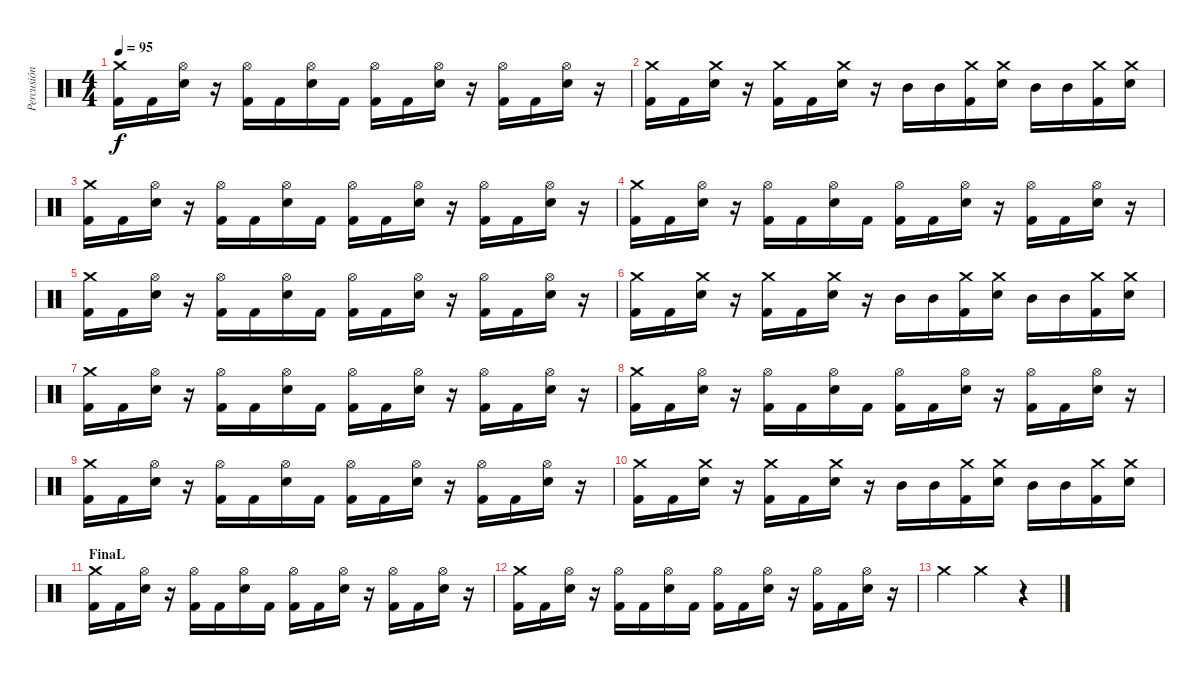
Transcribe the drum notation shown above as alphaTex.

\track ("Percusión" "Percusión") {instrument percussion}
\staff {score}
\articulation defaults
\ts (4 4)
\tempo 95
\clef neutral
\ks c
("Crash medium (hit)" "Kick (hit) 2").16{dy f} "Kick (hit) 2".16 ("Hi-Hat (open)" "Electric Snare (hit)").16 r.16 ("Hi-Hat (open)" "Kick (hit) 2").16 "Kick (hit) 2".16 ("Hi-Hat (open)" "Electric Snare (hit)").16 "Kick (hit) 2".16 ("Hi-Hat (open)" "Kick (hit) 2").16 "Kick (hit) 2".16 ("Hi-Hat (open)" "Electric Snare (hit)").16 r.16 ("Hi-Hat (open)" "Kick (hit) 2").16 "Kick (hit) 2".16 ("Hi-Hat (open)" "Electric Snare (hit)").16 r.16 |
("Crash medium (hit)" "Kick (hit) 2").16 "Kick (hit) 2".16 ("Crash medium (hit)" "Electric Snare (hit)").16 r.16 ("Crash medium (hit)" "Kick (hit) 2").16 "Kick (hit) 2".16 ("Crash medium (hit)" "Electric Snare (hit)").16 r.16 "Mid Tom (hit)".16 "Mid Tom (hit)".16 ("Crash medium (hit)" "Kick (hit) 2").16 ("Crash medium (hit)" "Electric Snare (hit)").16 "Mid Tom (hit)".16 "Mid Tom (hit)".16 ("Crash medium (hit)" "Kick (hit) 2").16 ("Crash medium (hit)" "Electric Snare (hit)").16 |
("Crash medium (hit)" "Kick (hit) 2").16 "Kick (hit) 2".16 ("Hi-Hat (open)" "Electric Snare (hit)").16 r.16 ("Hi-Hat (open)" "Kick (hit) 2").16 "Kick (hit) 2".16 ("Hi-Hat (open)" "Electric Snare (hit)").16 "Kick (hit) 2".16 ("Hi-Hat (open)" "Kick (hit) 2").16 "Kick (hit) 2".16 ("Hi-Hat (open)" "Electric Snare (hit)").16 r.16 ("Hi-Hat (open)" "Kick (hit) 2").16 "Kick (hit) 2".16 ("Hi-Hat (open)" "Electric Snare (hit)").16 r.16 |
("Crash medium (hit)" "Kick (hit) 2").16 "Kick (hit) 2".16 ("Hi-Hat (open)" "Electric Snare (hit)").16 r.16 ("Hi-Hat (open)" "Kick (hit) 2").16 "Kick (hit) 2".16 ("Hi-Hat (open)" "Electric Snare (hit)").16 "Kick (hit) 2".16 ("Hi-Hat (open)" "Kick (hit) 2").16 "Kick (hit) 2".16 ("Hi-Hat (open)" "Electric Snare (hit)").16 r.16 ("Hi-Hat (open)" "Kick (hit) 2").16 "Kick (hit) 2".16 ("Hi-Hat (open)" "Electric Snare (hit)").16 r.16 |
("Crash medium (hit)" "Kick (hit) 2").16 "Kick (hit) 2".16 ("Hi-Hat (open)" "Electric Snare (hit)").16 r.16 ("Hi-Hat (open)" "Kick (hit) 2").16 "Kick (hit) 2".16 ("Hi-Hat (open)" "Electric Snare (hit)").16 "Kick (hit) 2".16 ("Hi-Hat (open)" "Kick (hit) 2").16 "Kick (hit) 2".16 ("Hi-Hat (open)" "Electric Snare (hit)").16 r.16 ("Hi-Hat (open)" "Kick (hit) 2").16 "Kick (hit) 2".16 ("Hi-Hat (open)" "Electric Snare (hit)").16 r.16 |
("Crash medium (hit)" "Kick (hit) 2").16 "Kick (hit) 2".16 ("Crash medium (hit)" "Electric Snare (hit)").16 r.16 ("Crash medium (hit)" "Kick (hit) 2").16 "Kick (hit) 2".16 ("Crash medium (hit)" "Electric Snare (hit)").16 r.16 "Mid Tom (hit)".16 "Mid Tom (hit)".16 ("Crash medium (hit)" "Kick (hit) 2").16 ("Crash medium (hit)" "Electric Snare (hit)").16 "Mid Tom (hit)".16 "Mid Tom (hit)".16 ("Crash medium (hit)" "Kick (hit) 2").16 ("Crash medium (hit)" "Electric Snare (hit)").16 |
("Crash medium (hit)" "Kick (hit) 2").16 "Kick (hit) 2".16 ("Hi-Hat (open)" "Electric Snare (hit)").16 r.16 ("Hi-Hat (open)" "Kick (hit) 2").16 "Kick (hit) 2".16 ("Hi-Hat (open)" "Electric Snare (hit)").16 "Kick (hit) 2".16 ("Hi-Hat (open)" "Kick (hit) 2").16 "Kick (hit) 2".16 ("Hi-Hat (open)" "Electric Snare (hit)").16 r.16 ("Hi-Hat (open)" "Kick (hit) 2").16 "Kick (hit) 2".16 ("Hi-Hat (open)" "Electric Snare (hit)").16 r.16 |
("Crash medium (hit)" "Kick (hit) 2").16 "Kick (hit) 2".16 ("Hi-Hat (open)" "Electric Snare (hit)").16 r.16 ("Hi-Hat (open)" "Kick (hit) 2").16 "Kick (hit) 2".16 ("Hi-Hat (open)" "Electric Snare (hit)").16 "Kick (hit) 2".16 ("Hi-Hat (open)" "Kick (hit) 2").16 "Kick (hit) 2".16 ("Hi-Hat (open)" "Electric Snare (hit)").16 r.16 ("Hi-Hat (open)" "Kick (hit) 2").16 "Kick (hit) 2".16 ("Hi-Hat (open)" "Electric Snare (hit)").16 r.16 |
("Crash medium (hit)" "Kick (hit) 2").16 "Kick (hit) 2".16 ("Hi-Hat (open)" "Electric Snare (hit)").16 r.16 ("Hi-Hat (open)" "Kick (hit) 2").16 "Kick (hit) 2".16 ("Hi-Hat (open)" "Electric Snare (hit)").16 "Kick (hit) 2".16 ("Hi-Hat (open)" "Kick (hit) 2").16 "Kick (hit) 2".16 ("Hi-Hat (open)" "Electric Snare (hit)").16 r.16 ("Hi-Hat (open)" "Kick (hit) 2").16 "Kick (hit) 2".16 ("Hi-Hat (open)" "Electric Snare (hit)").16 r.16 |
("Crash medium (hit)" "Kick (hit) 2").16 "Kick (hit) 2".16 ("Crash medium (hit)" "Electric Snare (hit)").16 r.16 ("Crash medium (hit)" "Kick (hit) 2").16 "Kick (hit) 2".16 ("Crash medium (hit)" "Electric Snare (hit)").16 r.16 "Mid Tom (hit)".16 "Mid Tom (hit)".16 ("Crash medium (hit)" "Kick (hit) 2").16 ("Crash medium (hit)" "Electric Snare (hit)").16 "Mid Tom (hit)".16 "Mid Tom (hit)".16 ("Crash medium (hit)" "Kick (hit) 2").16 ("Crash medium (hit)" "Electric Snare (hit)").16 |
\section ("" "FinaL")
("Crash medium (hit)" "Kick (hit) 2").16 "Kick (hit) 2".16 ("Hi-Hat (open)" "Electric Snare (hit)").16 r.16 ("Hi-Hat (open)" "Kick (hit) 2").16 "Kick (hit) 2".16 ("Hi-Hat (open)" "Electric Snare (hit)").16 "Kick (hit) 2".16 ("Hi-Hat (open)" "Kick (hit) 2").16 "Kick (hit) 2".16 ("Hi-Hat (open)" "Electric Snare (hit)").16 r.16 ("Hi-Hat (open)" "Kick (hit) 2").16 "Kick (hit) 2".16 ("Hi-Hat (open)" "Electric Snare (hit)").16 r.16 |
("Crash medium (hit)" "Kick (hit) 2").16 "Kick (hit) 2".16 ("Hi-Hat (open)" "Electric Snare (hit)").16 r.16 ("Hi-Hat (open)" "Kick (hit) 2").16 "Kick (hit) 2".16 ("Hi-Hat (open)" "Electric Snare (hit)").16 "Kick (hit) 2".16 ("Hi-Hat (open)" "Kick (hit) 2").16 "Kick (hit) 2".16 ("Hi-Hat (open)" "Electric Snare (hit)").16 r.16 ("Hi-Hat (open)" "Kick (hit) 2").16 "Kick (hit) 2".16 ("Hi-Hat (open)" "Electric Snare (hit)").16 r.16 |
"Crash medium (hit)".4 "Crash medium (hit)".2 r.4
